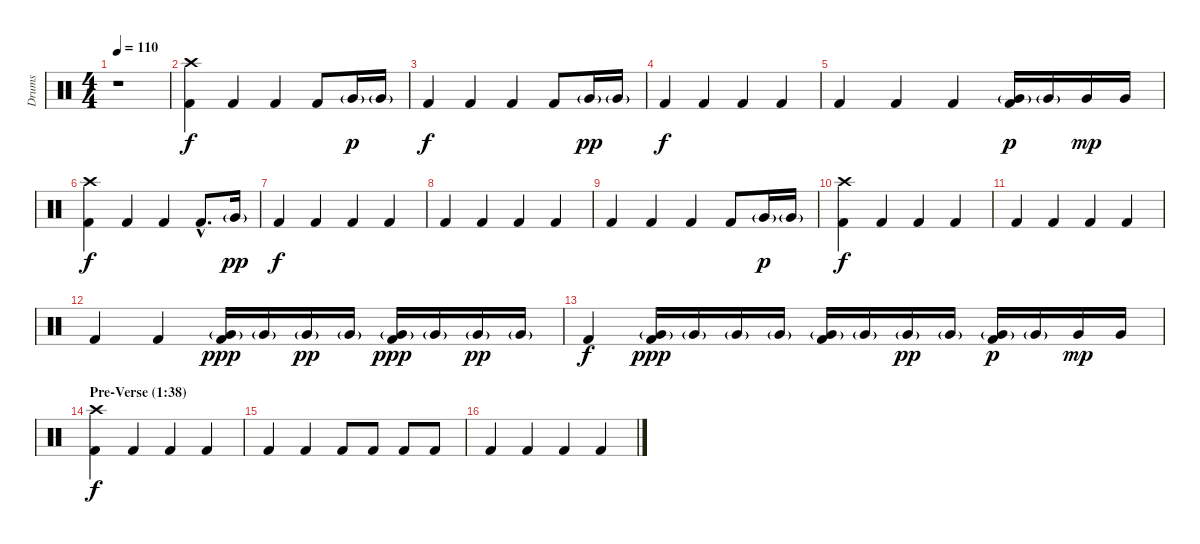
\track ("Drums" "Drums") {instrument percussion}
\staff {score}
\articulation defaults
\ts (4 4)
\tempo 110
\clef neutral
\ks c
r.1{dy pp} |
("Crash high (hit)" "Kick (hit) 2").4{dy f} "Kick (hit) 2".4 "Kick (hit) 2".4 "Kick (hit) 2".8 "Very Low Tom (hit)"{g}.16{dy p} "Very Low Tom (hit)"{g}.16 |
"Kick (hit) 2".4{dy f} "Kick (hit) 2".4 "Kick (hit) 2".4 "Kick (hit) 2".8 "Very Low Tom (hit)"{g}.16{dy pp} "Very Low Tom (hit)"{g}.16 |
"Kick (hit) 2".4{dy f} "Kick (hit) 2".4 "Kick (hit) 2".4 "Kick (hit) 2".4 |
"Kick (hit) 2".4 "Kick (hit) 2".4 "Kick (hit) 2".4 ("Very Low Tom (hit)"{g} "Kick (hit) 2").16{dy p} "Very Low Tom (hit)"{g}.16 "Very Low Tom (hit)".16{dy mp} "Very Low Tom (hit)".16 |
("Crash high (hit)" "Kick (hit) 2").4{dy f} "Kick (hit) 2".4 "Kick (hit) 2".4 "Kick (hit) 2"{hac}.8{d} "Very Low Tom (hit)"{g}.16{dy pp} |
"Kick (hit) 2".4{dy f} "Kick (hit) 2".4 "Kick (hit) 2".4 "Kick (hit) 2".4 |
"Kick (hit) 2".4 "Kick (hit) 2".4 "Kick (hit) 2".4 "Kick (hit) 2".4 |
"Kick (hit) 2".4 "Kick (hit) 2".4 "Kick (hit) 2".4 "Kick (hit) 2".8 "Very Low Tom (hit)"{g}.16{dy p} "Very Low Tom (hit)"{g}.16 |
("Crash high (hit)" "Kick (hit) 2").4{dy f} "Kick (hit) 2".4 "Kick (hit) 2".4 "Kick (hit) 2".4 |
"Kick (hit) 2".4 "Kick (hit) 2".4 "Kick (hit) 2".4 "Kick (hit) 2".4 |
"Kick (hit) 2".4 "Kick (hit) 2".4 ("Very Low Tom (hit)"{g} "Kick (hit) 2").16{dy ppp} "Very Low Tom (hit)"{g}.16 "Very Low Tom (hit)"{g}.16{dy pp} "Very Low Tom (hit)"{g}.16 ("Very Low Tom (hit)"{g} "Kick (hit) 2").16{dy ppp} "Very Low Tom (hit)"{g}.16 "Very Low Tom (hit)"{g}.16{dy pp} "Very Low Tom (hit)"{g}.16 |
"Kick (hit) 2".4{dy f} ("Very Low Tom (hit)"{g} "Kick (hit) 2").16{dy ppp} "Very Low Tom (hit)"{g}.16 "Very Low Tom (hit)"{g}.16 "Very Low Tom (hit)"{g}.16 ("Very Low Tom (hit)"{g} "Kick (hit) 2").16 "Very Low Tom (hit)"{g}.16 "Very Low Tom (hit)"{g}.16{dy pp} "Very Low Tom (hit)"{g}.16 ("Very Low Tom (hit)"{g} "Kick (hit) 2").16{dy p} "Very Low Tom (hit)"{g}.16 "Very Low Tom (hit)".16{dy mp} "Very Low Tom (hit)".16 |
\section ("" "Pre-Verse (1:38)")
("Crash high (hit)" "Kick (hit) 2").4{dy f} "Kick (hit) 2".4 "Kick (hit) 2".4 "Kick (hit) 2".4 |
"Kick (hit) 2".4 "Kick (hit) 2".4 "Kick (hit) 2".8 "Kick (hit) 2".8 "Kick (hit) 2".8 "Kick (hit) 2".8 |
"Kick (hit) 2".4 "Kick (hit) 2".4 "Kick (hit) 2".4 "Kick (hit) 2".4
